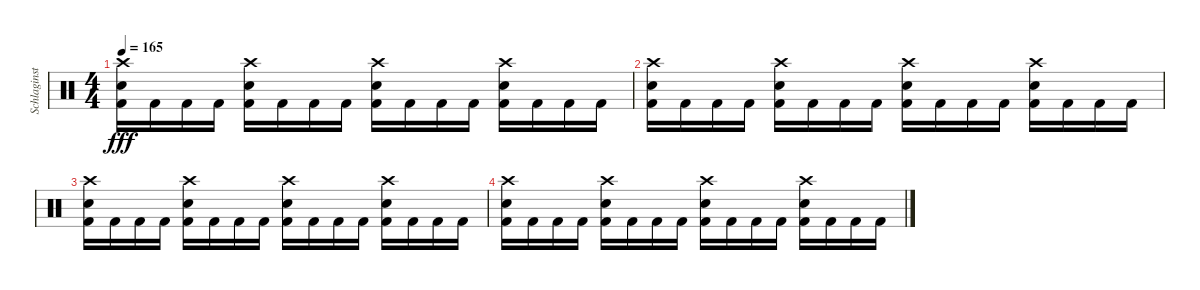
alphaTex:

\track ("Schlaginstrumente - Auswahl" "Schlaginst") {instrument percussion}
\staff {score}
\articulation defaults
\ts (4 4)
\tempo 165
\clef neutral
\ks c
("Crash high (hit)" "Snare (hit) 2" "Kick (hit) 2").16{dy fff} "Kick (hit) 2".16 "Kick (hit) 2".16 "Kick (hit) 2".16 ("Crash high (hit)" "Snare (hit) 2" "Kick (hit) 2").16 "Kick (hit) 2".16 "Kick (hit) 2".16 "Kick (hit) 2".16 ("Crash high (hit)" "Snare (hit) 2" "Kick (hit) 2").16 "Kick (hit) 2".16 "Kick (hit) 2".16 "Kick (hit) 2".16 ("Crash high (hit)" "Snare (hit) 2" "Kick (hit) 2").16 "Kick (hit) 2".16 "Kick (hit) 2".16 "Kick (hit) 2".16 |
("Crash high (hit)" "Snare (hit) 2" "Kick (hit) 2").16 "Kick (hit) 2".16 "Kick (hit) 2".16 "Kick (hit) 2".16 ("Crash high (hit)" "Snare (hit) 2" "Kick (hit) 2").16 "Kick (hit) 2".16 "Kick (hit) 2".16 "Kick (hit) 2".16 ("Crash high (hit)" "Snare (hit) 2" "Kick (hit) 2").16 "Kick (hit) 2".16 "Kick (hit) 2".16 "Kick (hit) 2".16 ("Crash high (hit)" "Snare (hit) 2" "Kick (hit) 2").16 "Kick (hit) 2".16 "Kick (hit) 2".16 "Kick (hit) 2".16 |
("Crash high (hit)" "Snare (hit) 2" "Kick (hit) 2").16 "Kick (hit) 2".16 "Kick (hit) 2".16 "Kick (hit) 2".16 ("Crash high (hit)" "Snare (hit) 2" "Kick (hit) 2").16 "Kick (hit) 2".16 "Kick (hit) 2".16 "Kick (hit) 2".16 ("Crash high (hit)" "Snare (hit) 2" "Kick (hit) 2").16 "Kick (hit) 2".16 "Kick (hit) 2".16 "Kick (hit) 2".16 ("Crash high (hit)" "Snare (hit) 2" "Kick (hit) 2").16 "Kick (hit) 2".16 "Kick (hit) 2".16 "Kick (hit) 2".16 |
("Crash high (hit)" "Snare (hit) 2" "Kick (hit) 2").16 "Kick (hit) 2".16 "Kick (hit) 2".16 "Kick (hit) 2".16 ("Crash high (hit)" "Snare (hit) 2" "Kick (hit) 2").16 "Kick (hit) 2".16 "Kick (hit) 2".16 "Kick (hit) 2".16 ("Crash high (hit)" "Snare (hit) 2" "Kick (hit) 2").16 "Kick (hit) 2".16 "Kick (hit) 2".16 "Kick (hit) 2".16 ("Crash high (hit)" "Snare (hit) 2" "Kick (hit) 2").16 "Kick (hit) 2".16 "Kick (hit) 2".16 "Kick (hit) 2".16
